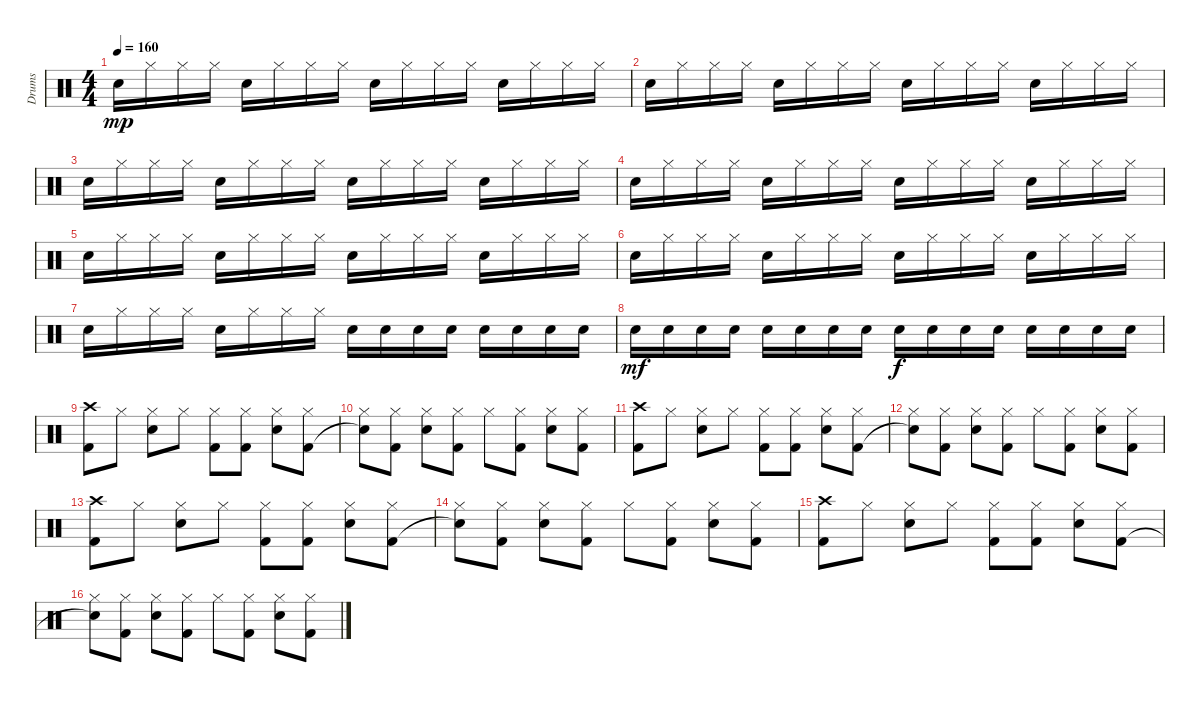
\track ("Drums" "Drums") {instrument percussion}
\staff {score}
\articulation defaults
\ts (4 4)
\tempo 160
\clef neutral
\ks c "Electric Snare (hit)".16{dy mp} "Hi-Hat (closed)".16 "Hi-Hat (closed)".16 "Hi-Hat (closed)".16 "Electric Snare (hit)".16 "Hi-Hat (closed)".16 "Hi-Hat (closed)".16 "Hi-Hat (closed)".16 "Electric Snare (hit)".16 "Hi-Hat (closed)".16 "Hi-Hat (closed)".16 "Hi-Hat (closed)".16 "Electric Snare (hit)".16 "Hi-Hat (closed)".16 "Hi-Hat (closed)".16 "Hi-Hat (closed)".16
|
"Electric Snare (hit)".16 "Hi-Hat (closed)".16 "Hi-Hat (closed)".16 "Hi-Hat (closed)".16 "Electric Snare (hit)".16 "Hi-Hat (closed)".16 "Hi-Hat (closed)".16 "Hi-Hat (closed)".16 "Electric Snare (hit)".16 "Hi-Hat (closed)".16 "Hi-Hat (closed)".16 "Hi-Hat (closed)".16 "Electric Snare (hit)".16 "Hi-Hat (closed)".16 "Hi-Hat (closed)".16 "Hi-Hat (closed)".16 |
"Electric Snare (hit)".16 "Hi-Hat (closed)".16 "Hi-Hat (closed)".16 "Hi-Hat (closed)".16 "Electric Snare (hit)".16 "Hi-Hat (closed)".16 "Hi-Hat (closed)".16 "Hi-Hat (closed)".16 "Electric Snare (hit)".16 "Hi-Hat (closed)".16 "Hi-Hat (closed)".16 "Hi-Hat (closed)".16 "Electric Snare (hit)".16 "Hi-Hat (closed)".16 "Hi-Hat (closed)".16 "Hi-Hat (closed)".16 |
"Electric Snare (hit)".16 "Hi-Hat (closed)".16 "Hi-Hat (closed)".16 "Hi-Hat (closed)".16 "Electric Snare (hit)".16 "Hi-Hat (closed)".16 "Hi-Hat (closed)".16 "Hi-Hat (closed)".16 "Electric Snare (hit)".16 "Hi-Hat (closed)".16 "Hi-Hat (closed)".16 "Hi-Hat (closed)".16 "Electric Snare (hit)".16 "Hi-Hat (closed)".16 "Hi-Hat (closed)".16 "Hi-Hat (closed)".16 |
"Electric Snare (hit)".16 "Hi-Hat (closed)".16 "Hi-Hat (closed)".16 "Hi-Hat (closed)".16 "Electric Snare (hit)".16 "Hi-Hat (closed)".16 "Hi-Hat (closed)".16 "Hi-Hat (closed)".16 "Electric Snare (hit)".16 "Hi-Hat (closed)".16 "Hi-Hat (closed)".16 "Hi-Hat (closed)".16 "Electric Snare (hit)".16 "Hi-Hat (closed)".16 "Hi-Hat (closed)".16 "Hi-Hat (closed)".16 |
"Electric Snare (hit)".16 "Hi-Hat (closed)".16 "Hi-Hat (closed)".16 "Hi-Hat (closed)".16 "Electric Snare (hit)".16 "Hi-Hat (closed)".16 "Hi-Hat (closed)".16 "Hi-Hat (closed)".16 "Electric Snare (hit)".16 "Hi-Hat (closed)".16 "Hi-Hat (closed)".16 "Hi-Hat (closed)".16 "Electric Snare (hit)".16 "Hi-Hat (closed)".16 "Hi-Hat (closed)".16 "Hi-Hat (closed)".16 |
"Electric Snare (hit)".16 "Hi-Hat (closed)".16 "Hi-Hat (closed)".16 "Hi-Hat (closed)".16 "Electric Snare (hit)".16 "Hi-Hat (closed)".16 "Hi-Hat (closed)".16 "Hi-Hat (closed)".16 "Electric Snare (hit)".16 "Electric Snare (hit)".16 "Electric Snare (hit)".16 "Electric Snare (hit)".16 "Electric Snare (hit)".16 "Electric Snare (hit)".16 "Electric Snare (hit)".16 "Electric Snare (hit)".16 |
"Electric Snare (hit)".16{dy mf} "Electric Snare (hit)".16 "Electric Snare (hit)".16 "Electric Snare (hit)".16 "Electric Snare (hit)".16 "Electric Snare (hit)".16 "Electric Snare (hit)".16 "Electric Snare (hit)".16 "Electric Snare (hit)".16{dy f} "Electric Snare (hit)".16 "Electric Snare (hit)".16 "Electric Snare (hit)".16 "Electric Snare (hit)".16 "Electric Snare (hit)".16 "Electric Snare (hit)".16 "Electric Snare (hit)".16 |
("Crash high (hit)" "Kick (hit) 2").8 "Hi-Hat (closed)".8 ("Hi-Hat (closed)" "Electric Snare (hit)").8 "Hi-Hat (closed)".8 ("Hi-Hat (closed)" "Kick (hit) 2").8 ("Hi-Hat (closed)" "Kick (hit) 2").8 ("Hi-Hat (closed)" "Electric Snare (hit)").8 ("Hi-Hat (closed)" "Kick (hit) 2").8 |
("Hi-Hat (closed)" "Snare (hit)"{t}).8 ("Hi-Hat (closed)" "Kick (hit) 2").8 ("Hi-Hat (closed)" "Electric Snare (hit)").8 ("Hi-Hat (closed)" "Kick (hit) 2").8 "Hi-Hat (closed)".8 ("Hi-Hat (closed)" "Kick (hit) 2").8 ("Hi-Hat (closed)" "Electric Snare (hit)").8 ("Hi-Hat (closed)" "Kick (hit) 2").8 |
("Crash high (hit)" "Kick (hit) 2").8 "Hi-Hat (closed)".8 ("Hi-Hat (closed)" "Electric Snare (hit)").8 "Hi-Hat (closed)".8 ("Hi-Hat (closed)" "Kick (hit) 2").8 ("Hi-Hat (closed)" "Kick (hit) 2").8 ("Hi-Hat (closed)" "Electric Snare (hit)").8 ("Hi-Hat (closed)" "Kick (hit) 2").8 |
("Hi-Hat (closed)" "Snare (hit)"{t}).8 ("Hi-Hat (closed)" "Kick (hit) 2").8 ("Hi-Hat (closed)" "Electric Snare (hit)").8 ("Hi-Hat (closed)" "Kick (hit) 2").8 "Hi-Hat (closed)".8 ("Hi-Hat (closed)" "Kick (hit) 2").8 ("Hi-Hat (closed)" "Electric Snare (hit)").8 ("Hi-Hat (closed)" "Kick (hit) 2").8 |
("Crash high (hit)" "Kick (hit) 2").8 "Hi-Hat (closed)".8 ("Hi-Hat (closed)" "Electric Snare (hit)").8 "Hi-Hat (closed)".8 ("Hi-Hat (closed)" "Kick (hit) 2").8 ("Hi-Hat (closed)" "Kick (hit) 2").8 ("Hi-Hat (closed)" "Electric Snare (hit)").8 ("Hi-Hat (closed)" "Kick (hit) 2").8 |
("Hi-Hat (closed)" "Snare (hit)"{t}).8 ("Hi-Hat (closed)" "Kick (hit) 2").8 ("Hi-Hat (closed)" "Electric Snare (hit)").8 ("Hi-Hat (closed)" "Kick (hit) 2").8 "Hi-Hat (closed)".8 ("Hi-Hat (closed)" "Kick (hit) 2").8 ("Hi-Hat (closed)" "Electric Snare (hit)").8 ("Hi-Hat (closed)" "Kick (hit) 2").8 |
("Crash high (hit)" "Kick (hit) 2").8 "Hi-Hat (closed)".8 ("Hi-Hat (closed)" "Electric Snare (hit)").8 "Hi-Hat (closed)".8 ("Hi-Hat (closed)" "Kick (hit) 2").8 ("Hi-Hat (closed)" "Kick (hit) 2").8 ("Hi-Hat (closed)" "Electric Snare (hit)").8 ("Hi-Hat (closed)" "Kick (hit) 2").8 |
("Hi-Hat (closed)" "Snare (hit)"{t}).8 ("Hi-Hat (closed)" "Kick (hit) 2").8 ("Hi-Hat (closed)" "Electric Snare (hit)").8 ("Hi-Hat (closed)" "Kick (hit) 2").8 "Hi-Hat (closed)".8 ("Hi-Hat (closed)" "Kick (hit) 2").8 ("Hi-Hat (closed)" "Electric Snare (hit)").8 ("Hi-Hat (closed)" "Kick (hit) 2").8
